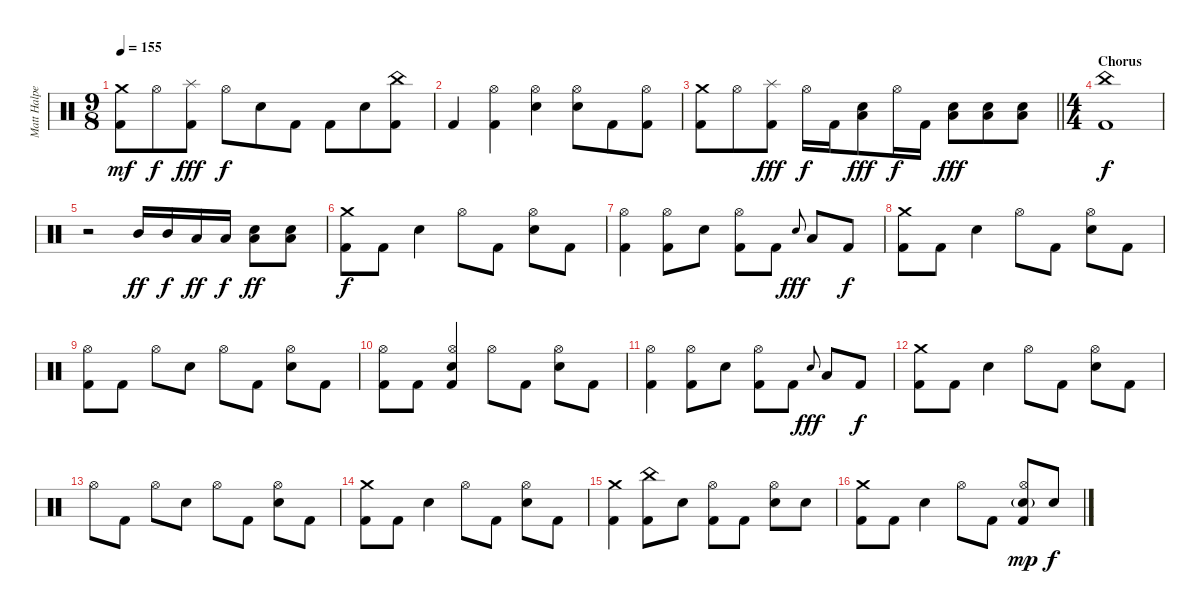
\track ("Matt Halpern - Drums" "Matt Halpe") {instrument percussion}
\staff {score}
\articulation defaults
\ts (9 8)
\tempo 155
\clef neutral
\ks c
("Crash medium (hit)" "Kick (hit) 2").8{dy mf} "Hi-Hat (open)".8{dy f} ("Splash (hit)" "Kick (hit) 2").8{dy fff} "Hi-Hat (open)".8{dy f} "Electric Snare (hit)".8 "Kick (hit) 2".8 "Kick (hit) 2".8 "Electric Snare (hit)".8 ("China (hit)" "Kick (hit) 2").8 |
"Kick (hit) 2".4 ("Hi-Hat (open)" "Kick (hit) 2").4 ("Hi-Hat (open)" "Electric Snare (hit)").4 ("Hi-Hat (open)" "Electric Snare (hit)").8 "Kick (hit) 2".8 ("Hi-Hat (open)" "Kick (hit) 2").8 |
\barLineRight lightlight
("Crash medium (hit)" "Kick (hit) 2").8 "Hi-Hat (open)".8 ("Splash (hit)" "Kick (hit) 2").8{dy fff} "Hi-Hat (open)".16{dy f} "Kick (hit) 2".16 ("Electric Snare (hit)" "Low Floor Tom (hit)").8{dy fff} "Hi-Hat (open)".16{dy f} "Kick (hit) 2".16 ("Electric Snare (hit)" "Low Floor Tom (hit)").8{dy fff} ("Electric Snare (hit)" "Low Floor Tom (hit)").8 ("Electric Snare (hit)" "Low Floor Tom (hit)").8 |
\ts (4 4)
\section ("" "Chorus")
("China (hit)" "Kick (hit) 2").1{dy f} |
r.2 "Mid Tom (hit)".16{dy ff} "Mid Tom (hit)".16{dy f} "Low Tom (hit)".16{dy ff} "Low Tom (hit)".16{dy f} ("Electric Snare (hit)" "Low Floor Tom (hit)").8{dy ff} ("Electric Snare (hit)" "Low Floor Tom (hit)").8 |
("Crash medium (hit)" "Kick (hit) 2").8{dy f} "Kick (hit) 2".8 "Electric Snare (hit)".4 "Hi-Hat (open)".8 "Kick (hit) 2".8 ("Hi-Hat (open)" "Electric Snare (hit)").8 "Kick (hit) 2".8 |
("Hi-Hat (open)" "Kick (hit) 2").4 ("Hi-Hat (open)" "Kick (hit) 2").8 "Electric Snare (hit)".8 ("Hi-Hat (open)" "Kick (hit) 2").8 "Kick (hit) 2".8 "Electric Snare (hit)".8{gr onbeat dy fff} "Low Floor Tom (hit)".8 "Kick (hit) 2".8{dy f} |
("Crash medium (hit)" "Kick (hit) 2").8 "Kick (hit) 2".8 "Electric Snare (hit)".4 "Hi-Hat (open)".8 "Kick (hit) 2".8 ("Hi-Hat (open)" "Electric Snare (hit)").8 "Kick (hit) 2".8 |
("Hi-Hat (open)" "Kick (hit) 2").8 "Kick (hit) 2".8 "Hi-Hat (open)".8 "Electric Snare (hit)".8 "Hi-Hat (open)".8 "Kick (hit) 2".8 ("Hi-Hat (open)" "Electric Snare (hit)").8 "Kick (hit) 2".8 |
("Hi-Hat (open)" "Kick (hit) 2").8 "Kick (hit) 2".8 ("Hi-Hat (open)" "Electric Snare (hit)" "Kick (hit) 2").4 "Hi-Hat (open)".8 "Kick (hit) 2".8 ("Hi-Hat (open)" "Electric Snare (hit)").8 "Kick (hit) 2".8 |
("Hi-Hat (open)" "Kick (hit) 2").4 ("Hi-Hat (open)" "Kick (hit) 2").8 "Electric Snare (hit)".8 ("Hi-Hat (open)" "Kick (hit) 2").8 "Kick (hit) 2".8 "Electric Snare (hit)".8{gr onbeat dy fff} "Low Floor Tom (hit)".8 "Kick (hit) 2".8{dy f} |
("Crash medium (hit)" "Kick (hit) 2").8 "Kick (hit) 2".8 "Electric Snare (hit)".4 "Hi-Hat (open)".8 "Kick (hit) 2".8 ("Hi-Hat (open)" "Electric Snare (hit)").8 "Kick (hit) 2".8 |
"Hi-Hat (open)".8 "Kick (hit) 2".8 "Hi-Hat (open)".8 "Electric Snare (hit)".8 "Hi-Hat (open)".8 "Kick (hit) 2".8 ("Hi-Hat (open)" "Electric Snare (hit)").8 "Kick (hit) 2".8 |
("Crash medium (hit)" "Kick (hit) 2").8 "Kick (hit) 2".8 "Electric Snare (hit)".4 "Hi-Hat (open)".8 "Kick (hit) 2".8 ("Hi-Hat (open)" "Electric Snare (hit)").8 "Kick (hit) 2".8 |
("Crash medium (hit)" "Kick (hit) 2").4 ("China (hit)" "Kick (hit) 2").8 "Electric Snare (hit)".8 ("Hi-Hat (open)" "Kick (hit) 2").8 "Kick (hit) 2".8 ("Hi-Hat (open)" "Electric Snare (hit)").8 "Electric Snare (hit)".8 |
("Crash medium (hit)" "Kick (hit) 2").8 "Kick (hit) 2".8 "Electric Snare (hit)".4 "Hi-Hat (open)".8 "Kick (hit) 2".8 ("Hi-Hat (open)" "Electric Snare (hit)"{g} "Kick (hit) 2").8{dy mp} "Electric Snare (hit)".8{dy f}
